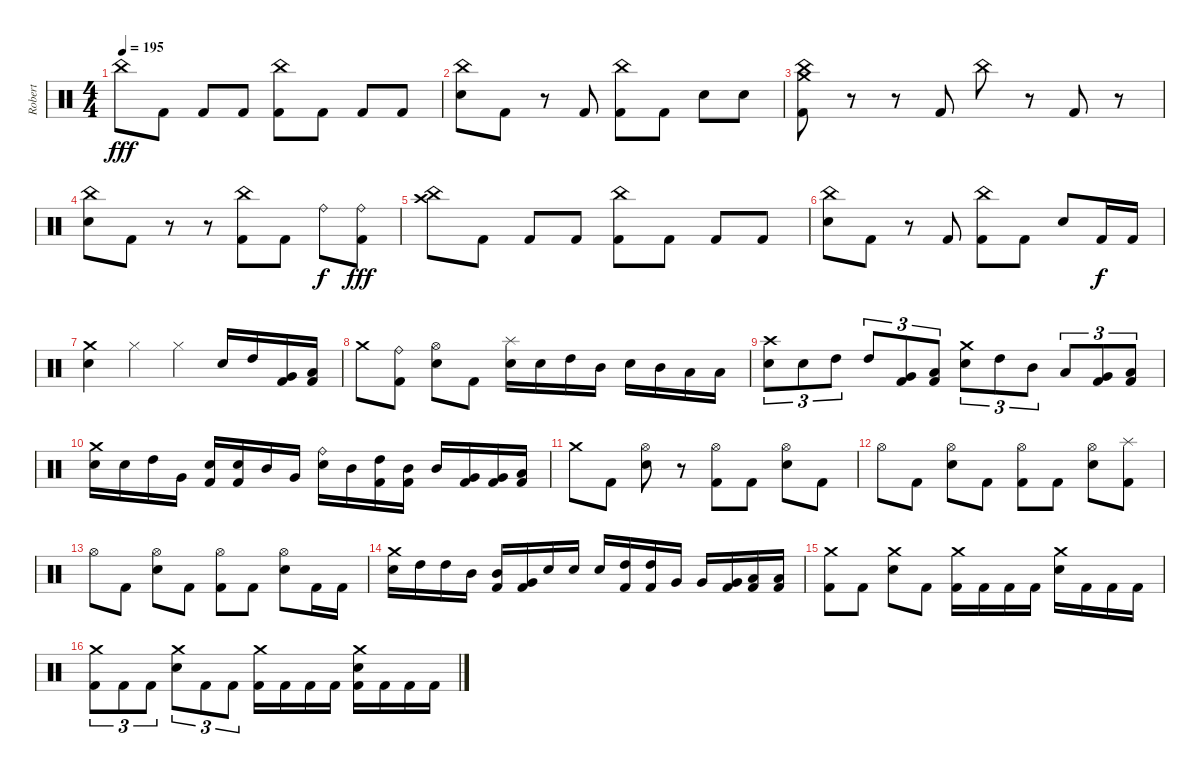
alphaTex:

\track ("Robert" "Robert") {instrument percussion}
\staff {score}
\articulation defaults
\ts (4 4)
\tempo 195
\clef neutral
\ks c "China (hit)".8{dy fff} "Kick (hit) 2".8 "Kick (hit) 2".8 "Kick (hit) 2".8
("China (hit)" "Kick (hit) 2").8 "Kick (hit) 2".8 "Kick (hit) 2".8 "Kick (hit) 2".8 |
("Electric Snare (hit)" "China (hit)").8 "Kick (hit) 2".8 r.8 "Kick (hit) 2".8 ("Kick (hit) 2" "China (hit)").8 "Kick (hit) 2".8 "Electric Snare (hit)".8 "Electric Snare (hit)".8 |
("China (hit)" "Crash medium (hit)" "Kick (hit) 2").8 r.8 r.8 "Kick (hit) 2".8 "China (hit)".8 r.8 "Kick (hit) 2".8 r.8 |
("Electric Snare (hit)" "China (hit)").8 "Kick (hit) 2".8 r.8 r.8 ("Kick (hit) 2" "China (hit)").8 "Kick (hit) 2".8 "Ride (bell)".8{dy f} ("Kick (hit) 2" "Ride (bell)").8{dy fff} |
("China (hit)" "Crash high (hit)").8 "Kick (hit) 2".8 "Kick (hit) 2".8 "Kick (hit) 2".8 ("China (hit)" "Kick (hit) 2").8 "Kick (hit) 2".8 "Kick (hit) 2".8 "Kick (hit) 2".8 |
("Electric Snare (hit)" "China (hit)").8 "Kick (hit) 2".8 r.8 "Kick (hit) 2".8 ("Kick (hit) 2" "China (hit)").8 "Kick (hit) 2".8 "Electric Snare (hit)".8 "Kick (hit) 2".16{dy f} "Kick (hit) 2".16 |
("Electric Snare (hit)" "Crash medium (hit)").4 "Hi-Hat (closed)".4 "Hi-Hat (closed)".4 "Electric Snare (hit)".16 "High Tom (hit)".16 ("Very Low Tom (hit)" "Kick (hit) 2").16 ("Low Floor Tom (hit)" "Kick (hit) 2").16 |
"Crash medium (hit)".8 ("Ride (bell)" "Kick (hit) 2").8 ("Electric Snare (hit)" "Hi-Hat (open)").8 "Kick (hit) 2".8 ("Splash (hit)" "Electric Snare (hit)").16 "Electric Snare (hit)".16 "High Tom (hit)".16 "Mid Tom (hit)".16 "Electric Snare (hit)".16 "Mid Tom (hit)".16 "Low Tom (hit)".16 "Low Floor Tom (hit)".16 |
("Electric Snare (hit)" "Crash high (hit)").8{tu (3 2)} "Electric Snare (hit)".8{tu (3 2)} "High Tom (hit)".8{tu (3 2)} "High Tom (hit)".8{tu (3 2)} ("Very Low Tom (hit)" "Kick (hit) 2").8{tu (3 2)} ("Low Floor Tom (hit)" "Kick (hit) 2").8{tu (3 2)} ("Electric Snare (hit)" "Crash medium (hit)").8{tu (3 2)} "High Tom (hit)".8{tu (3 2)} "Mid Tom (hit)".8{tu (3 2)} "Low Tom (hit)".8{tu (3 2)} ("Very Low Tom (hit)" "Kick (hit) 2").8{tu (3 2)} ("Low Floor Tom (hit)" "Kick (hit) 2").8{tu (3 2)} |
("Crash medium (hit)" "Electric Snare (hit)").16 "Electric Snare (hit)".16 "High Tom (hit)".16 "Very Low Tom (hit)".16 ("Electric Snare (hit)" "Kick (hit) 2").16 ("Electric Snare (hit)" "Kick (hit) 2").16 "Mid Tom (hit)".16 "Very Low Tom (hit)".16 ("Ride (bell)" "Electric Snare (hit)").16 "Mid Tom (hit)".16 ("High Tom (hit)" "Kick (hit) 2").16 ("Mid Tom (hit)" "Kick (hit) 2").16 "Mid Tom (hit)".16 ("Very Low Tom (hit)" "Kick (hit) 2").16 ("Very Low Tom (hit)" "Kick (hit) 2").16 ("Low Floor Tom (hit)" "Kick (hit) 2").16 |
"Crash medium (hit)".8 "Kick (hit) 2".8 ("Hi-Hat (open)" "Electric Snare (hit)").8 r.8 ("Hi-Hat (open)" "Kick (hit) 2").8 "Kick (hit) 2".8 ("Hi-Hat (open)" "Electric Snare (hit)").8 "Kick (hit) 2".8 |
"Hi-Hat (open)".8 "Kick (hit) 2".8 ("Hi-Hat (open)" "Electric Snare (hit)").8 "Kick (hit) 2".8 ("Hi-Hat (open)" "Kick (hit) 2").8 "Kick (hit) 2".8 ("Hi-Hat (open)" "Electric Snare (hit)").8 ("Splash (hit)" "Kick (hit) 2").8 |
"Hi-Hat (open)".8 "Kick (hit) 2".8 ("Hi-Hat (open)" "Electric Snare (hit)").8 "Kick (hit) 2".8 ("Hi-Hat (open)" "Kick (hit) 2").8 "Kick (hit) 2".8 ("Hi-Hat (open)" "Electric Snare (hit)").8 "Kick (hit) 2".16 "Kick (hit) 2".16 |
("Crash medium (hit)" "Electric Snare (hit)").16 "High Tom (hit)".16 "High Tom (hit)".16 "Mid Tom (hit)".16 ("Mid Tom (hit)" "Kick (hit) 2").16 ("Very Low Tom (hit)" "Kick (hit) 2").16 "Electric Snare (hit)".16 "Electric Snare (hit)".16 "Electric Snare (hit)".16 ("High Tom (hit)" "Kick (hit) 2").16 ("High Tom (hit)" "Kick (hit) 2").16 "Very Low Tom (hit)".16 "Very Low Tom (hit)".16 ("Very Low Tom (hit)" "Kick (hit) 2").16 ("Low Floor Tom (hit)" "Kick (hit) 2").16 ("Low Floor Tom (hit)" "Kick (hit) 2").16 |
("Kick (hit) 2" "Crash medium (hit)").8 "Kick (hit) 2".8 ("Electric Snare (hit)" "Crash medium (hit)").8 "Kick (hit) 2".8 ("Kick (hit) 2" "Crash medium (hit)").16 "Kick (hit) 2".16 "Kick (hit) 2".16 "Kick (hit) 2".16 ("Electric Snare (hit)" "Crash medium (hit)").16 "Kick (hit) 2".16 "Kick (hit) 2".16 "Kick (hit) 2".16 |
("Kick (hit) 2" "Crash medium (hit)").8{tu (3 2)} "Kick (hit) 2".8{tu (3 2)} "Kick (hit) 2".8{tu (3 2)} ("Electric Snare (hit)" "Crash medium (hit)").8{tu (3 2)} "Kick (hit) 2".8{tu (3 2)} "Kick (hit) 2".8{tu (3 2)} ("Kick (hit) 2" "Crash medium (hit)").16 "Kick (hit) 2".16 "Kick (hit) 2".16 "Kick (hit) 2".16 ("Kick (hit) 2" "Electric Snare (hit)" "Crash medium (hit)").16 "Kick (hit) 2".16 "Kick (hit) 2".16 "Kick (hit) 2".16
